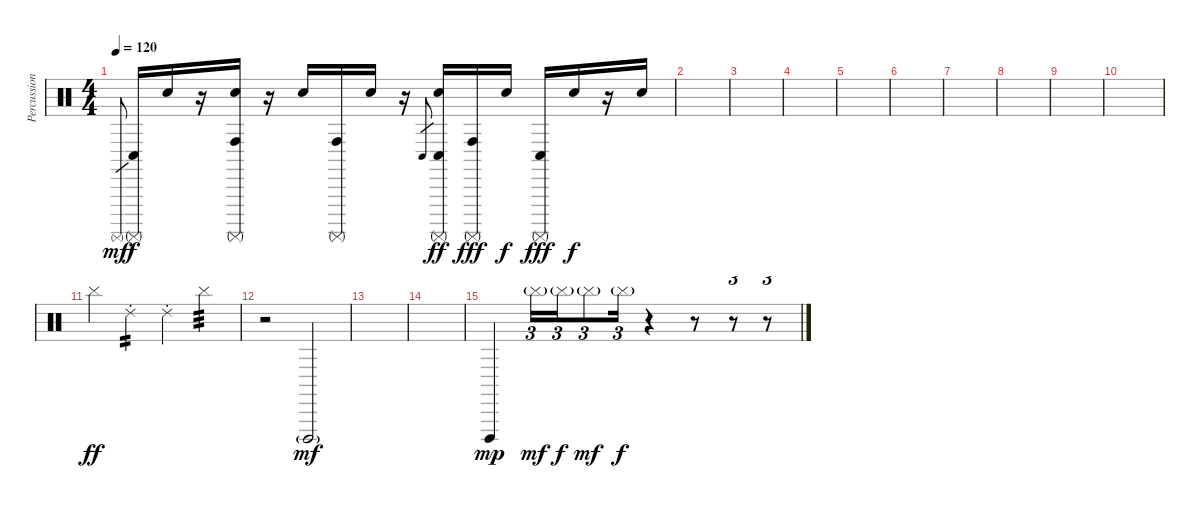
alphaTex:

\track ("Percussioni" "Percussion") {instrument percussion}
\staff {score}
\articulation defaults
\ts (4 4)
\tempo 120
\clef neutral
\ks c "Surdo (mute)".8{gr dy mf}
("Surdo (mute)" "Conga low (hit)").16{dy f} "Snare (hit)".16 r.16 ("Snare (hit)" "Surdo (mute)" "Conga high (hit)").16 r.16 "Snare (hit)".16 ("Surdo (mute)" "Conga high (hit)").16 "Snare (hit)".16 r.16 "Conga low (hit)".8{gr} ("Snare (hit)" "Surdo (mute)" "Conga low (hit)").16{dy ff} ("Surdo (mute)" "Conga high (hit)").16{dy fff} "Snare (hit)".16{dy f} ("Surdo (mute)" "Conga low (hit)").16{dy fff} "Snare (hit)".16{dy f} r.16 "Snare (hit)".16 |
|
|
|
|
|
|
|
|
|
"Cymbal (hit)".4{dy ff} "Ride (choke) 2".4{tp 2} "Ride (choke) 2".4 "Cymbal (hit)".4{tp 3} |
r.2 "Cuica (open)"{g}.2{dy mf} |
|
|
"Cuica (open)".4{dy mp} "Cymbal (hit)"{g}.16{tu (3 2) dy mf} "Cymbal (hit)"{g}.16{tu (3 2) dy f} "Cymbal (hit)"{g}.8{tu (3 2) dy mf} "Cymbal (hit)"{g}.16{tu (3 2) dy f} r.4 r.8 r.8{tu (3 2)} r.8{tu (3 2)}
